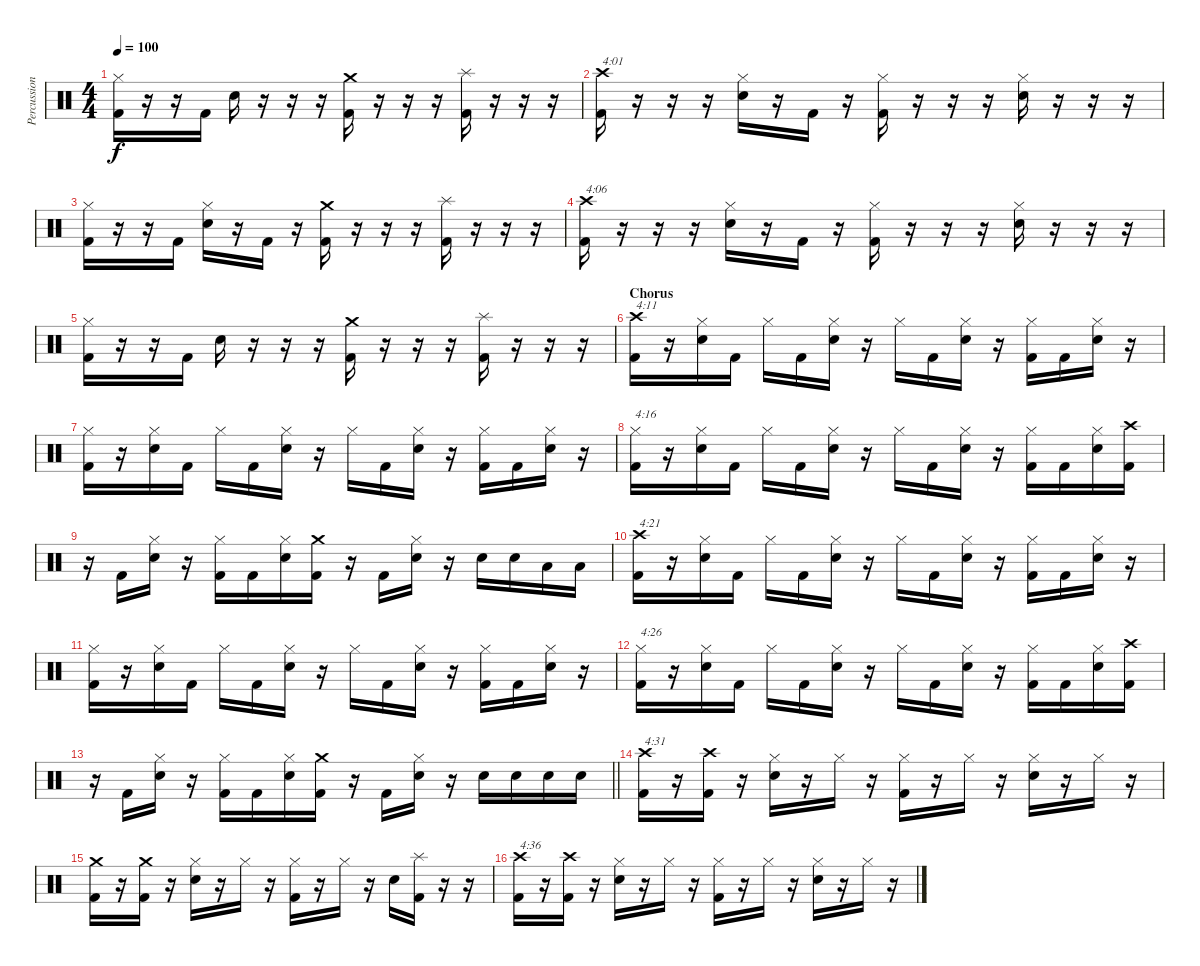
\track ("Percussion" "Percussion") {instrument percussion}
\staff {score}
\articulation defaults
\ts (4 4)
\tempo 100
\clef neutral
\ks c
("Hi-Hat (closed)" "Kick (hit) 2").16{dy f} r.16 r.16 "Kick (hit) 2".16 "Electric Snare (hit)".16 r.16 r.16 r.16 ("Crash medium (hit)" "Kick (hit) 2").16 r.16 r.16 r.16 ("Splash (hit)" "Kick (hit) 2").16 r.16 r.16 r.16 |
("Crash high (hit)" "Kick (hit) 2").16{txt "4:01"} r.16 r.16 r.16 ("Hi-Hat (closed)" "Electric Snare (hit)").16 r.16 "Kick (hit) 2".16 r.16 ("Hi-Hat (closed)" "Kick (hit) 2").16 r.16 r.16 r.16 ("Hi-Hat (closed)" "Electric Snare (hit)").16 r.16 r.16 r.16 |
("Hi-Hat (closed)" "Kick (hit) 2").16 r.16 r.16 "Kick (hit) 2".16 ("Hi-Hat (closed)" "Electric Snare (hit)").16 r.16 "Kick (hit) 2".16 r.16 ("Crash medium (hit)" "Kick (hit) 2").16 r.16 r.16 r.16 ("Splash (hit)" "Kick (hit) 2").16 r.16 r.16 r.16 |
("Crash high (hit)" "Kick (hit) 2").16{txt "4:06"} r.16 r.16 r.16 ("Hi-Hat (closed)" "Electric Snare (hit)").16 r.16 "Kick (hit) 2".16 r.16 ("Hi-Hat (closed)" "Kick (hit) 2").16 r.16 r.16 r.16 ("Hi-Hat (closed)" "Electric Snare (hit)").16 r.16 r.16 r.16 |
("Hi-Hat (closed)" "Kick (hit) 2").16 r.16 r.16 "Kick (hit) 2".16 "Electric Snare (hit)".16 r.16 r.16 r.16 ("Crash medium (hit)" "Kick (hit) 2").16 r.16 r.16 r.16 ("Splash (hit)" "Kick (hit) 2").16 r.16 r.16 r.16 |
\section ("" "Chorus")
("Crash high (hit)" "Kick (hit) 2").16{txt "4:11"} r.16 ("Hi-Hat (closed)" "Electric Snare (hit)").16 "Kick (hit) 2".16 "Hi-Hat (closed)".16 "Kick (hit) 2".16 ("Hi-Hat (closed)" "Electric Snare (hit)").16 r.16 "Hi-Hat (closed)".16 "Kick (hit) 2".16 ("Hi-Hat (closed)" "Electric Snare (hit)").16 r.16 ("Hi-Hat (closed)" "Kick (hit) 2").16 "Kick (hit) 2".16 ("Hi-Hat (closed)" "Electric Snare (hit)").16 r.16 |
("Hi-Hat (closed)" "Kick (hit) 2").16 r.16 ("Hi-Hat (closed)" "Electric Snare (hit)").16 "Kick (hit) 2".16 "Hi-Hat (closed)".16 "Kick (hit) 2".16 ("Hi-Hat (closed)" "Electric Snare (hit)").16 r.16 "Hi-Hat (closed)".16 "Kick (hit) 2".16 ("Hi-Hat (closed)" "Electric Snare (hit)").16 r.16 ("Hi-Hat (closed)" "Kick (hit) 2").16 "Kick (hit) 2".16 ("Hi-Hat (closed)" "Electric Snare (hit)").16 r.16 |
("Hi-Hat (closed)" "Kick (hit) 2").16{txt "4:16"} r.16 ("Hi-Hat (closed)" "Electric Snare (hit)").16 "Kick (hit) 2".16 "Hi-Hat (closed)".16 "Kick (hit) 2".16 ("Hi-Hat (closed)" "Electric Snare (hit)").16 r.16 "Hi-Hat (closed)".16 "Kick (hit) 2".16 ("Hi-Hat (closed)" "Electric Snare (hit)").16 r.16 ("Hi-Hat (closed)" "Kick (hit) 2").16 "Kick (hit) 2".16 ("Hi-Hat (closed)" "Electric Snare (hit)").16 ("Crash high (hit)" "Kick (hit) 2").16 |
r.16 "Kick (hit) 2".16 ("Hi-Hat (closed)" "Electric Snare (hit)").16 r.16 ("Hi-Hat (closed)" "Kick (hit) 2").16 "Kick (hit) 2".16 ("Hi-Hat (closed)" "Electric Snare (hit)").16 ("Crash medium (hit)" "Kick (hit) 2").16 r.16 "Kick (hit) 2".16 ("Hi-Hat (closed)" "Electric Snare (hit)").16 r.16 "Electric Snare (hit)".16 "Electric Snare (hit)".16 "Low Tom (hit)".16 "Low Tom (hit)".16 |
("Crash high (hit)" "Kick (hit) 2").16{txt "4:21"} r.16 ("Hi-Hat (closed)" "Electric Snare (hit)").16 "Kick (hit) 2".16 "Hi-Hat (closed)".16 "Kick (hit) 2".16 ("Hi-Hat (closed)" "Electric Snare (hit)").16 r.16 "Hi-Hat (closed)".16 "Kick (hit) 2".16 ("Hi-Hat (closed)" "Electric Snare (hit)").16 r.16 ("Hi-Hat (closed)" "Kick (hit) 2").16 "Kick (hit) 2".16 ("Hi-Hat (closed)" "Electric Snare (hit)").16 r.16 |
("Hi-Hat (closed)" "Kick (hit) 2").16 r.16 ("Hi-Hat (closed)" "Electric Snare (hit)").16 "Kick (hit) 2".16 "Hi-Hat (closed)".16 "Kick (hit) 2".16 ("Hi-Hat (closed)" "Electric Snare (hit)").16 r.16 "Hi-Hat (closed)".16 "Kick (hit) 2".16 ("Hi-Hat (closed)" "Electric Snare (hit)").16 r.16 ("Hi-Hat (closed)" "Kick (hit) 2").16 "Kick (hit) 2".16 ("Hi-Hat (closed)" "Electric Snare (hit)").16 r.16 |
("Hi-Hat (closed)" "Kick (hit) 2").16{txt "4:26"} r.16 ("Hi-Hat (closed)" "Electric Snare (hit)").16 "Kick (hit) 2".16 "Hi-Hat (closed)".16 "Kick (hit) 2".16 ("Hi-Hat (closed)" "Electric Snare (hit)").16 r.16 "Hi-Hat (closed)".16 "Kick (hit) 2".16 ("Hi-Hat (closed)" "Electric Snare (hit)").16 r.16 ("Hi-Hat (closed)" "Kick (hit) 2").16 "Kick (hit) 2".16 ("Hi-Hat (closed)" "Electric Snare (hit)").16 ("Crash high (hit)" "Kick (hit) 2").16 |
\barLineRight lightlight
r.16 "Kick (hit) 2".16 ("Hi-Hat (closed)" "Electric Snare (hit)").16 r.16 ("Hi-Hat (closed)" "Kick (hit) 2").16 "Kick (hit) 2".16 ("Hi-Hat (closed)" "Electric Snare (hit)").16 ("Crash medium (hit)" "Kick (hit) 2").16 r.16 "Kick (hit) 2".16 ("Hi-Hat (closed)" "Electric Snare (hit)").16 r.16 "Electric Snare (hit)".16 "Electric Snare (hit)".16 "Electric Snare (hit)".16 "Electric Snare (hit)".16 |
("Crash high (hit)" "Kick (hit) 2").16{txt "4:31"} r.16 ("Crash high (hit)" "Kick (hit) 2").16 r.16 ("Hi-Hat (closed)" "Electric Snare (hit)").16 r.16 "Hi-Hat (closed)".16 r.16 ("Hi-Hat (closed)" "Kick (hit) 2").16 r.16 "Hi-Hat (closed)".16 r.16 ("Hi-Hat (closed)" "Electric Snare (hit)").16 r.16 "Hi-Hat (closed)".16 r.16 |
("Crash medium (hit)" "Kick (hit) 2").16 r.16 ("Crash medium (hit)" "Kick (hit) 2").16 r.16 ("Hi-Hat (closed)" "Electric Snare (hit)").16 r.16 "Hi-Hat (closed)".16 r.16 ("Hi-Hat (closed)" "Kick (hit) 2").16 r.16 "Hi-Hat (closed)".16 r.16 "Electric Snare (hit)".16 ("Splash (hit)" "Kick (hit) 2").16 r.16 r.16 |
("Crash high (hit)" "Kick (hit) 2").16{txt "4:36"} r.16 ("Crash high (hit)" "Kick (hit) 2").16 r.16 ("Hi-Hat (closed)" "Electric Snare (hit)").16 r.16 "Hi-Hat (closed)".16 r.16 ("Hi-Hat (closed)" "Kick (hit) 2").16 r.16 "Hi-Hat (closed)".16 r.16 ("Hi-Hat (closed)" "Electric Snare (hit)").16 r.16 "Hi-Hat (closed)".16 r.16
